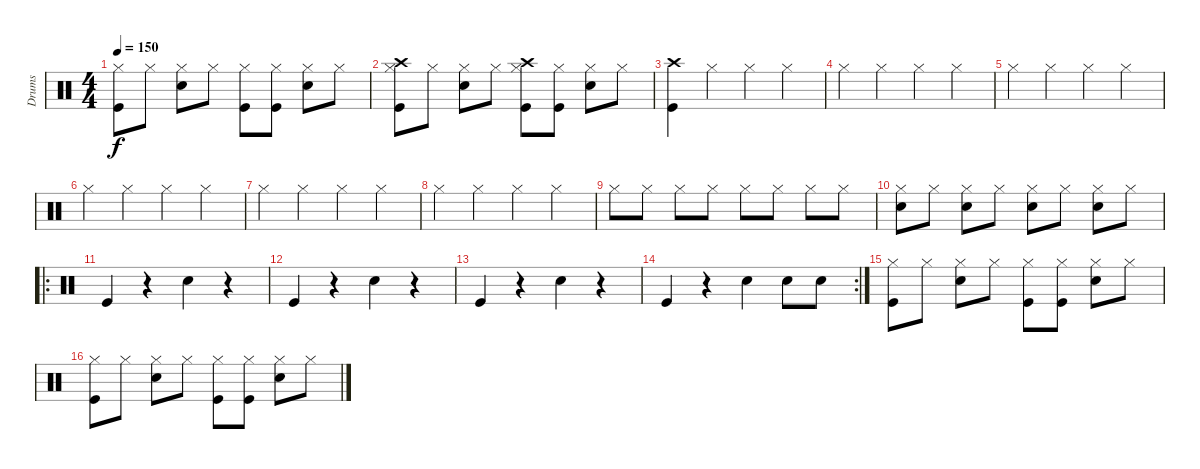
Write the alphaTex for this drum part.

\track ("Drums" "Drums") {instrument percussion}
\staff {score}
\articulation defaults
\ts (4 4)
\tempo 150
\clef neutral
\ks c
("Hi-Hat (closed)" "Kick (hit)").8{dy f} "Hi-Hat (closed)".8 ("Hi-Hat (closed)" "Snare (hit) 2").8 "Hi-Hat (closed)".8 ("Hi-Hat (closed)" "Kick (hit)").8 ("Hi-Hat (closed)" "Kick (hit)").8 ("Hi-Hat (closed)" "Snare (hit) 2").8 "Hi-Hat (closed)".8 |
("Hi-Hat (closed)" "Kick (hit)" "Crash high (hit)").8 "Hi-Hat (closed)".8 ("Hi-Hat (closed)" "Snare (hit) 2").8 "Hi-Hat (closed)".8 ("Hi-Hat (closed)" "Kick (hit)" "Crash high (hit)").8 ("Hi-Hat (closed)" "Kick (hit)").8 ("Hi-Hat (closed)" "Snare (hit) 2").8 "Hi-Hat (closed)".8 |
("Kick (hit)" "Crash high (hit)").4 "Hi-Hat (closed)".4 "Hi-Hat (closed)".4 "Hi-Hat (closed)".4 |
"Hi-Hat (closed)".4 "Hi-Hat (closed)".4 "Hi-Hat (closed)".4 "Hi-Hat (closed)".4 |
"Hi-Hat (closed)".4 "Hi-Hat (closed)".4 "Hi-Hat (closed)".4 "Hi-Hat (closed)".4 |
"Hi-Hat (closed)".4 "Hi-Hat (closed)".4 "Hi-Hat (closed)".4 "Hi-Hat (closed)".4 |
"Hi-Hat (closed)".4 "Hi-Hat (closed)".4 "Hi-Hat (closed)".4 "Hi-Hat (closed)".4 |
"Hi-Hat (closed)".4 "Hi-Hat (closed)".4 "Hi-Hat (closed)".4 "Hi-Hat (closed)".4 |
"Hi-Hat (closed)".8 "Hi-Hat (closed)".8 "Hi-Hat (closed)".8 "Hi-Hat (closed)".8 "Hi-Hat (closed)".8 "Hi-Hat (closed)".8 "Hi-Hat (closed)".8 "Hi-Hat (closed)".8 |
("Hi-Hat (closed)" "Snare (hit) 2").8 "Hi-Hat (closed)".8 ("Hi-Hat (closed)" "Snare (hit) 2").8 "Hi-Hat (closed)".8 ("Hi-Hat (closed)" "Snare (hit) 2").8 "Hi-Hat (closed)".8 ("Hi-Hat (closed)" "Snare (hit) 2").8 "Hi-Hat (closed)".8 |
\ro "Kick (hit)".4
r.4 "Snare (hit) 2".4 r.4 |
"Kick (hit)".4 r.4 "Snare (hit) 2".4 r.4 |
"Kick (hit)".4 r.4 "Snare (hit) 2".4 r.4 |
\rc 2 "Kick (hit)".4
r.4 "Snare (hit) 2".4 "Snare (hit) 2".8 "Snare (hit) 2".8 |
("Hi-Hat (closed)" "Kick (hit)").8 "Hi-Hat (closed)".8 ("Hi-Hat (closed)" "Snare (hit) 2").8 "Hi-Hat (closed)".8 ("Hi-Hat (closed)" "Kick (hit)").8 ("Hi-Hat (closed)" "Kick (hit)").8 ("Hi-Hat (closed)" "Snare (hit) 2").8 "Hi-Hat (closed)".8 |
("Hi-Hat (closed)" "Kick (hit)").8 "Hi-Hat (closed)".8 ("Hi-Hat (closed)" "Snare (hit) 2").8 "Hi-Hat (closed)".8 ("Hi-Hat (closed)" "Kick (hit)").8 ("Hi-Hat (closed)" "Kick (hit)").8 ("Hi-Hat (closed)" "Snare (hit) 2").8 "Hi-Hat (closed)".8
